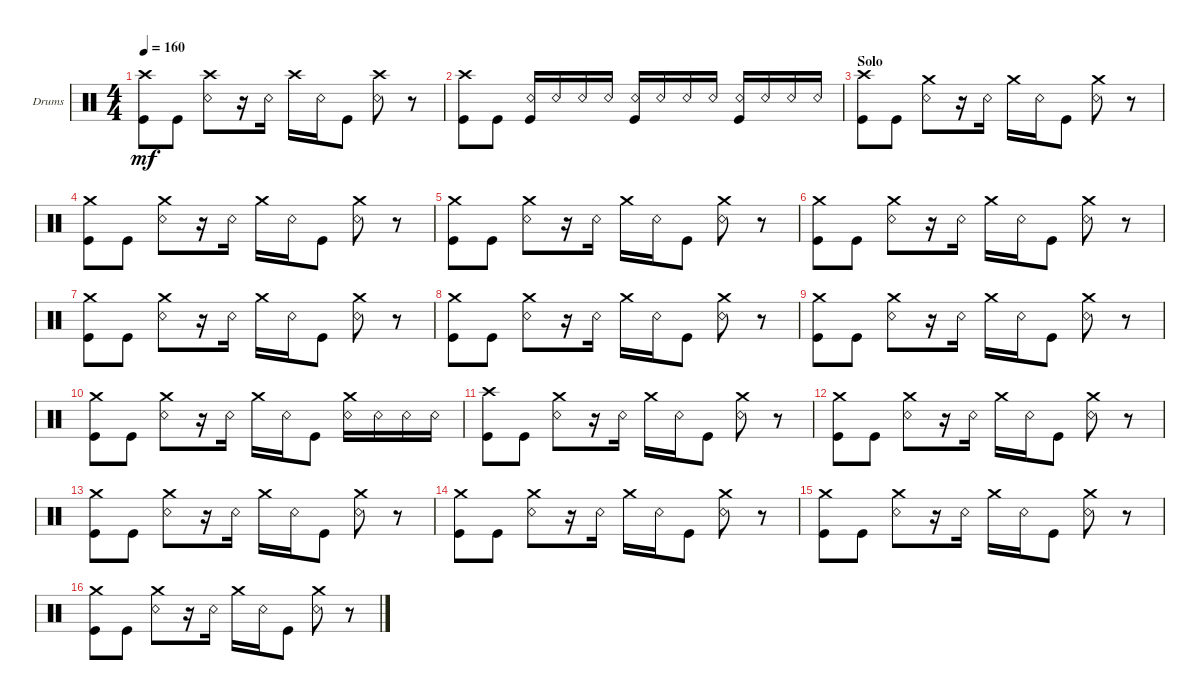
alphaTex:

\defaultSystemsLayout 4
\bracketExtendMode groupsimilarinstruments
\firstSystemTrackNameOrientation horizontal
\otherSystemsTrackNameOrientation horizontal
\track ("Drumkit" "Drums") {instrument percussion}
\staff {score}
\articulation defaults
\ts (4 4)
\tempo 160
\clef neutral
\ks c
("Kick (hit)" "Crash high (hit)").8{dy mf} "Kick (hit)".8 ("Snare (rim shot)" "Crash high (hit)").8 r.16 "Snare (rim shot)".16 "Crash high (hit)".16 "Snare (rim shot)".16 "Kick (hit)".8 ("Snare (rim shot)" "Crash high (hit)").8 r.8 |
("Kick (hit)" "Crash high (hit)").8 "Kick (hit)".8 ("Snare (rim shot)" "Kick (hit)").16 "Snare (rim shot)".16 "Snare (rim shot)".16 "Snare (rim shot)".16 ("Snare (rim shot)" "Kick (hit)").16 "Snare (rim shot)".16 "Snare (rim shot)".16 "Snare (rim shot)".16 ("Snare (rim shot)" "Kick (hit)").16 "Snare (rim shot)".16 "Snare (rim shot)".16 "Snare (rim shot)".16 |
\section ("" "Solo")
("Kick (hit)" "Crash high (hit)").8 "Kick (hit)".8 ("Snare (rim shot)" "Crash medium (hit)").8 r.16 "Snare (rim shot)".16 "Crash medium (hit)".16 "Snare (rim shot)".16 "Kick (hit)".8 ("Snare (rim shot)" "Crash medium (hit)").8 r.8 |
("Kick (hit)" "Crash medium (hit)").8 "Kick (hit)".8 ("Snare (rim shot)" "Crash medium (hit)").8 r.16 "Snare (rim shot)".16 "Crash medium (hit)".16 "Snare (rim shot)".16 "Kick (hit)".8 ("Snare (rim shot)" "Crash medium (hit)").8 r.8 |
("Kick (hit)" "Crash medium (hit)").8 "Kick (hit)".8 ("Snare (rim shot)" "Crash medium (hit)").8 r.16 "Snare (rim shot)".16 "Crash medium (hit)".16 "Snare (rim shot)".16 "Kick (hit)".8 ("Snare (rim shot)" "Crash medium (hit)").8 r.8 |
("Kick (hit)" "Crash medium (hit)").8 "Kick (hit)".8 ("Snare (rim shot)" "Crash medium (hit)").8 r.16 "Snare (rim shot)".16 "Crash medium (hit)".16 "Snare (rim shot)".16 "Kick (hit)".8 ("Snare (rim shot)" "Crash medium (hit)").8 r.8 |
("Kick (hit)" "Crash medium (hit)").8 "Kick (hit)".8 ("Snare (rim shot)" "Crash medium (hit)").8 r.16 "Snare (rim shot)".16 "Crash medium (hit)".16 "Snare (rim shot)".16 "Kick (hit)".8 ("Snare (rim shot)" "Crash medium (hit)").8 r.8 |
("Kick (hit)" "Crash medium (hit)").8 "Kick (hit)".8 ("Snare (rim shot)" "Crash medium (hit)").8 r.16 "Snare (rim shot)".16 "Crash medium (hit)".16 "Snare (rim shot)".16 "Kick (hit)".8 ("Snare (rim shot)" "Crash medium (hit)").8 r.8 |
("Kick (hit)" "Crash medium (hit)").8 "Kick (hit)".8 ("Snare (rim shot)" "Crash medium (hit)").8 r.16 "Snare (rim shot)".16 "Crash medium (hit)".16 "Snare (rim shot)".16 "Kick (hit)".8 ("Snare (rim shot)" "Crash medium (hit)").8 r.8 |
("Kick (hit)" "Crash medium (hit)").8 "Kick (hit)".8 ("Snare (rim shot)" "Crash medium (hit)").8 r.16 "Snare (rim shot)".16 "Crash medium (hit)".16 "Snare (rim shot)".16 "Kick (hit)".8 ("Snare (rim shot)" "Crash medium (hit)").16 "Snare (rim shot)".16 "Snare (rim shot)".16 "Snare (rim shot)".16 |
("Kick (hit)" "Crash high (hit)").8 "Kick (hit)".8 ("Snare (rim shot)" "Crash medium (hit)").8 r.16 "Snare (rim shot)".16 "Crash medium (hit)".16 "Snare (rim shot)".16 "Kick (hit)".8 ("Snare (rim shot)" "Crash medium (hit)").8 r.8 |
("Kick (hit)" "Crash medium (hit)").8 "Kick (hit)".8 ("Snare (rim shot)" "Crash medium (hit)").8 r.16 "Snare (rim shot)".16 "Crash medium (hit)".16 "Snare (rim shot)".16 "Kick (hit)".8 ("Snare (rim shot)" "Crash medium (hit)").8 r.8 |
("Kick (hit)" "Crash medium (hit)").8 "Kick (hit)".8 ("Snare (rim shot)" "Crash medium (hit)").8 r.16 "Snare (rim shot)".16 "Crash medium (hit)".16 "Snare (rim shot)".16 "Kick (hit)".8 ("Snare (rim shot)" "Crash medium (hit)").8 r.8 |
("Kick (hit)" "Crash medium (hit)").8 "Kick (hit)".8 ("Snare (rim shot)" "Crash medium (hit)").8 r.16 "Snare (rim shot)".16 "Crash medium (hit)".16 "Snare (rim shot)".16 "Kick (hit)".8 ("Snare (rim shot)" "Crash medium (hit)").8 r.8 |
("Kick (hit)" "Crash medium (hit)").8 "Kick (hit)".8 ("Snare (rim shot)" "Crash medium (hit)").8 r.16 "Snare (rim shot)".16 "Crash medium (hit)".16 "Snare (rim shot)".16 "Kick (hit)".8 ("Snare (rim shot)" "Crash medium (hit)").8 r.8 |
("Kick (hit)" "Crash medium (hit)").8 "Kick (hit)".8 ("Snare (rim shot)" "Crash medium (hit)").8 r.16 "Snare (rim shot)".16 "Crash medium (hit)".16 "Snare (rim shot)".16 "Kick (hit)".8 ("Snare (rim shot)" "Crash medium (hit)").8 r.8
